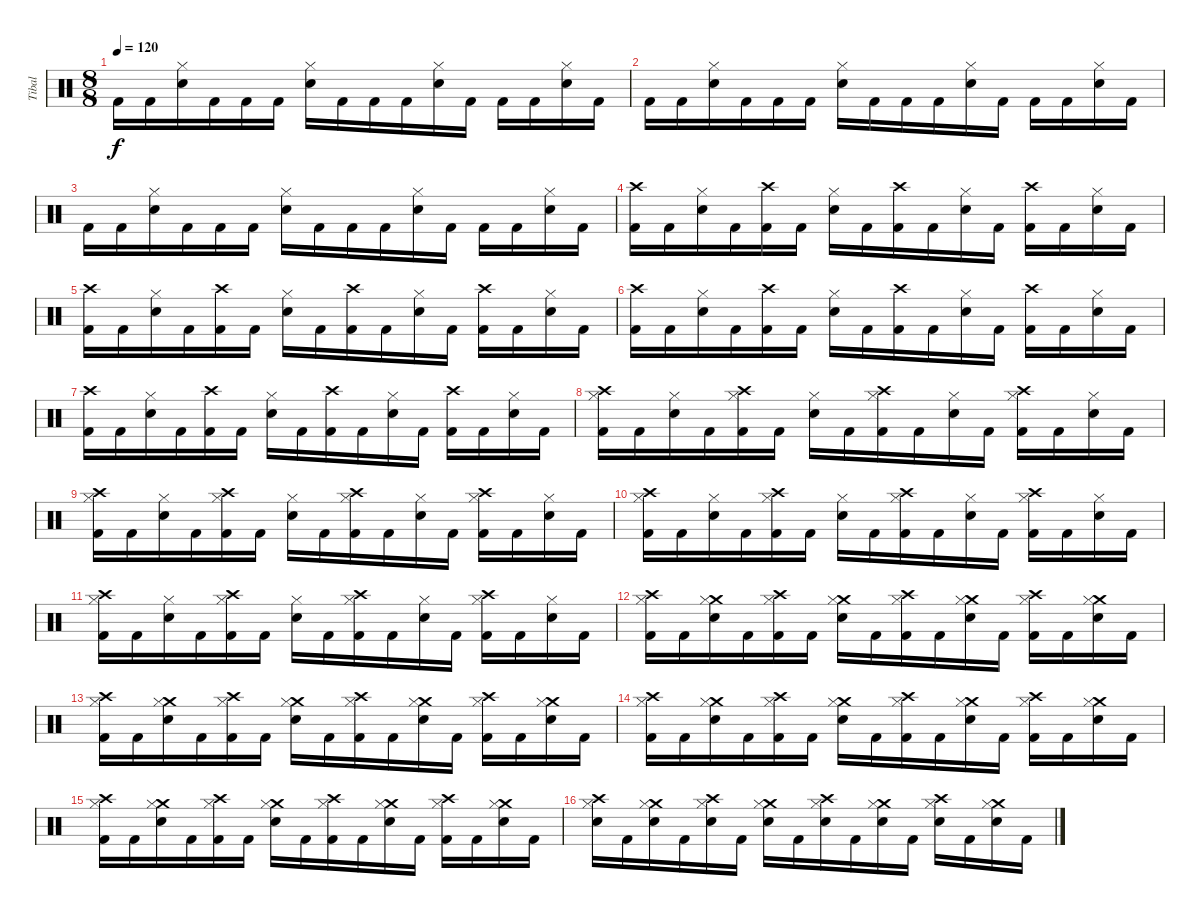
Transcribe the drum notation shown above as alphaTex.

\track ("Tibal" "Tibal") {instrument percussion}
\staff {score}
\articulation defaults
\ts (8 8)
\tempo 120
\clef neutral
\ks c "Kick (hit) 2".16{dy f} "Kick (hit) 2".16
("Snare (hit) 2" "Hi-Hat (closed)").16 "Kick (hit) 2".16 "Kick (hit) 2".16 "Kick (hit) 2".16 ("Snare (hit) 2" "Hi-Hat (closed)").16 "Kick (hit) 2".16 "Kick (hit) 2".16 "Kick (hit) 2".16 ("Snare (hit) 2" "Hi-Hat (closed)").16 "Kick (hit) 2".16 "Kick (hit) 2".16 "Kick (hit) 2".16 ("Snare (hit) 2" "Hi-Hat (closed)").16 "Kick (hit) 2".16 |
"Kick (hit) 2".16 "Kick (hit) 2".16 ("Snare (hit) 2" "Hi-Hat (closed)").16 "Kick (hit) 2".16 "Kick (hit) 2".16 "Kick (hit) 2".16 ("Snare (hit) 2" "Hi-Hat (closed)").16 "Kick (hit) 2".16 "Kick (hit) 2".16 "Kick (hit) 2".16 ("Snare (hit) 2" "Hi-Hat (closed)").16 "Kick (hit) 2".16 "Kick (hit) 2".16 "Kick (hit) 2".16 ("Snare (hit) 2" "Hi-Hat (closed)").16 "Kick (hit) 2".16 |
"Kick (hit) 2".16 "Kick (hit) 2".16 ("Snare (hit) 2" "Hi-Hat (closed)").16 "Kick (hit) 2".16 "Kick (hit) 2".16 "Kick (hit) 2".16 ("Snare (hit) 2" "Hi-Hat (closed)").16 "Kick (hit) 2".16 "Kick (hit) 2".16 "Kick (hit) 2".16 ("Snare (hit) 2" "Hi-Hat (closed)").16 "Kick (hit) 2".16 "Kick (hit) 2".16 "Kick (hit) 2".16 ("Snare (hit) 2" "Hi-Hat (closed)").16 "Kick (hit) 2".16 |
("Crash high (hit)" "Kick (hit) 2").16 "Kick (hit) 2".16 ("Snare (hit) 2" "Hi-Hat (closed)").16 "Kick (hit) 2".16 ("Crash high (hit)" "Kick (hit) 2").16 "Kick (hit) 2".16 ("Snare (hit) 2" "Hi-Hat (closed)").16 "Kick (hit) 2".16 ("Crash high (hit)" "Kick (hit) 2").16 "Kick (hit) 2".16 ("Snare (hit) 2" "Hi-Hat (closed)").16 "Kick (hit) 2".16 ("Crash high (hit)" "Kick (hit) 2").16 "Kick (hit) 2".16 ("Snare (hit) 2" "Hi-Hat (closed)").16 "Kick (hit) 2".16 |
("Crash high (hit)" "Kick (hit) 2").16 "Kick (hit) 2".16 ("Snare (hit) 2" "Hi-Hat (closed)").16 "Kick (hit) 2".16 ("Crash high (hit)" "Kick (hit) 2").16 "Kick (hit) 2".16 ("Snare (hit) 2" "Hi-Hat (closed)").16 "Kick (hit) 2".16 ("Crash high (hit)" "Kick (hit) 2").16 "Kick (hit) 2".16 ("Snare (hit) 2" "Hi-Hat (closed)").16 "Kick (hit) 2".16 ("Crash high (hit)" "Kick (hit) 2").16 "Kick (hit) 2".16 ("Snare (hit) 2" "Hi-Hat (closed)").16 "Kick (hit) 2".16 |
("Crash high (hit)" "Kick (hit) 2").16 "Kick (hit) 2".16 ("Snare (hit) 2" "Hi-Hat (closed)").16 "Kick (hit) 2".16 ("Crash high (hit)" "Kick (hit) 2").16 "Kick (hit) 2".16 ("Snare (hit) 2" "Hi-Hat (closed)").16 "Kick (hit) 2".16 ("Crash high (hit)" "Kick (hit) 2").16 "Kick (hit) 2".16 ("Snare (hit) 2" "Hi-Hat (closed)").16 "Kick (hit) 2".16 ("Crash high (hit)" "Kick (hit) 2").16 "Kick (hit) 2".16 ("Snare (hit) 2" "Hi-Hat (closed)").16 "Kick (hit) 2".16 |
("Crash high (hit)" "Kick (hit) 2").16 "Kick (hit) 2".16 ("Snare (hit) 2" "Hi-Hat (closed)").16 "Kick (hit) 2".16 ("Crash high (hit)" "Kick (hit) 2").16 "Kick (hit) 2".16 ("Snare (hit) 2" "Hi-Hat (closed)").16 "Kick (hit) 2".16 ("Crash high (hit)" "Kick (hit) 2").16 "Kick (hit) 2".16 ("Snare (hit) 2" "Hi-Hat (closed)").16 "Kick (hit) 2".16 ("Crash high (hit)" "Kick (hit) 2").16 "Kick (hit) 2".16 ("Snare (hit) 2" "Hi-Hat (closed)").16 "Kick (hit) 2".16 |
("Crash high (hit)" "Kick (hit) 2" "Hi-Hat (closed)").16 "Kick (hit) 2".16 ("Snare (hit) 2" "Hi-Hat (closed)").16 "Kick (hit) 2".16 ("Crash high (hit)" "Kick (hit) 2" "Hi-Hat (closed)").16 "Kick (hit) 2".16 ("Snare (hit) 2" "Hi-Hat (closed)").16 "Kick (hit) 2".16 ("Crash high (hit)" "Kick (hit) 2" "Hi-Hat (closed)").16 "Kick (hit) 2".16 ("Snare (hit) 2" "Hi-Hat (closed)").16 "Kick (hit) 2".16 ("Crash high (hit)" "Kick (hit) 2" "Hi-Hat (closed)").16 "Kick (hit) 2".16 ("Snare (hit) 2" "Hi-Hat (closed)").16 "Kick (hit) 2".16 |
("Crash high (hit)" "Kick (hit) 2" "Hi-Hat (closed)").16 "Kick (hit) 2".16 ("Snare (hit) 2" "Hi-Hat (closed)").16 "Kick (hit) 2".16 ("Crash high (hit)" "Kick (hit) 2" "Hi-Hat (closed)").16 "Kick (hit) 2".16 ("Snare (hit) 2" "Hi-Hat (closed)").16 "Kick (hit) 2".16 ("Crash high (hit)" "Kick (hit) 2" "Hi-Hat (closed)").16 "Kick (hit) 2".16 ("Snare (hit) 2" "Hi-Hat (closed)").16 "Kick (hit) 2".16 ("Crash high (hit)" "Kick (hit) 2" "Hi-Hat (closed)").16 "Kick (hit) 2".16 ("Snare (hit) 2" "Hi-Hat (closed)").16 "Kick (hit) 2".16 |
("Crash high (hit)" "Kick (hit) 2" "Hi-Hat (closed)").16 "Kick (hit) 2".16 ("Snare (hit) 2" "Hi-Hat (closed)").16 "Kick (hit) 2".16 ("Crash high (hit)" "Kick (hit) 2" "Hi-Hat (closed)").16 "Kick (hit) 2".16 ("Snare (hit) 2" "Hi-Hat (closed)").16 "Kick (hit) 2".16 ("Crash high (hit)" "Kick (hit) 2" "Hi-Hat (closed)").16 "Kick (hit) 2".16 ("Snare (hit) 2" "Hi-Hat (closed)").16 "Kick (hit) 2".16 ("Crash high (hit)" "Kick (hit) 2" "Hi-Hat (closed)").16 "Kick (hit) 2".16 ("Snare (hit) 2" "Hi-Hat (closed)").16 "Kick (hit) 2".16 |
("Crash high (hit)" "Kick (hit) 2" "Hi-Hat (closed)").16 "Kick (hit) 2".16 ("Snare (hit) 2" "Hi-Hat (closed)").16 "Kick (hit) 2".16 ("Crash high (hit)" "Kick (hit) 2" "Hi-Hat (closed)").16 "Kick (hit) 2".16 ("Snare (hit) 2" "Hi-Hat (closed)").16 "Kick (hit) 2".16 ("Crash high (hit)" "Kick (hit) 2" "Hi-Hat (closed)").16 "Kick (hit) 2".16 ("Snare (hit) 2" "Hi-Hat (closed)").16 "Kick (hit) 2".16 ("Crash high (hit)" "Kick (hit) 2" "Hi-Hat (closed)").16 "Kick (hit) 2".16 ("Snare (hit) 2" "Hi-Hat (closed)").16 "Kick (hit) 2".16 |
("Crash high (hit)" "Kick (hit) 2" "Hi-Hat (closed)").16 "Kick (hit) 2".16 ("Crash medium (hit)" "Snare (hit) 2" "Hi-Hat (closed)").16 "Kick (hit) 2".16 ("Crash high (hit)" "Kick (hit) 2" "Hi-Hat (closed)").16 "Kick (hit) 2".16 ("Crash medium (hit)" "Snare (hit) 2" "Hi-Hat (closed)").16 "Kick (hit) 2".16 ("Crash high (hit)" "Kick (hit) 2" "Hi-Hat (closed)").16 "Kick (hit) 2".16 ("Crash medium (hit)" "Snare (hit) 2" "Hi-Hat (closed)").16 "Kick (hit) 2".16 ("Crash high (hit)" "Kick (hit) 2" "Hi-Hat (closed)").16 "Kick (hit) 2".16 ("Crash medium (hit)" "Snare (hit) 2" "Hi-Hat (closed)").16 "Kick (hit) 2".16 |
("Crash high (hit)" "Kick (hit) 2" "Hi-Hat (closed)").16 "Kick (hit) 2".16 ("Crash medium (hit)" "Snare (hit) 2" "Hi-Hat (closed)").16 "Kick (hit) 2".16 ("Crash high (hit)" "Kick (hit) 2" "Hi-Hat (closed)").16 "Kick (hit) 2".16 ("Crash medium (hit)" "Snare (hit) 2" "Hi-Hat (closed)").16 "Kick (hit) 2".16 ("Crash high (hit)" "Kick (hit) 2" "Hi-Hat (closed)").16 "Kick (hit) 2".16 ("Crash medium (hit)" "Snare (hit) 2" "Hi-Hat (closed)").16 "Kick (hit) 2".16 ("Crash high (hit)" "Kick (hit) 2" "Hi-Hat (closed)").16 "Kick (hit) 2".16 ("Crash medium (hit)" "Snare (hit) 2" "Hi-Hat (closed)").16 "Kick (hit) 2".16 |
("Crash high (hit)" "Kick (hit) 2" "Hi-Hat (closed)").16 "Kick (hit) 2".16 ("Crash medium (hit)" "Snare (hit) 2" "Hi-Hat (closed)").16 "Kick (hit) 2".16 ("Crash high (hit)" "Kick (hit) 2" "Hi-Hat (closed)").16 "Kick (hit) 2".16 ("Crash medium (hit)" "Snare (hit) 2" "Hi-Hat (closed)").16 "Kick (hit) 2".16 ("Crash high (hit)" "Kick (hit) 2" "Hi-Hat (closed)").16 "Kick (hit) 2".16 ("Crash medium (hit)" "Snare (hit) 2" "Hi-Hat (closed)").16 "Kick (hit) 2".16 ("Crash high (hit)" "Kick (hit) 2" "Hi-Hat (closed)").16 "Kick (hit) 2".16 ("Crash medium (hit)" "Snare (hit) 2" "Hi-Hat (closed)").16 "Kick (hit) 2".16 |
("Crash high (hit)" "Kick (hit) 2" "Hi-Hat (closed)").16 "Kick (hit) 2".16 ("Crash medium (hit)" "Snare (hit) 2" "Hi-Hat (closed)").16 "Kick (hit) 2".16 ("Crash high (hit)" "Kick (hit) 2" "Hi-Hat (closed)").16 "Kick (hit) 2".16 ("Crash medium (hit)" "Snare (hit) 2" "Hi-Hat (closed)").16 "Kick (hit) 2".16 ("Crash high (hit)" "Kick (hit) 2" "Hi-Hat (closed)").16 "Kick (hit) 2".16 ("Crash medium (hit)" "Snare (hit) 2" "Hi-Hat (closed)").16 "Kick (hit) 2".16 ("Crash high (hit)" "Kick (hit) 2" "Hi-Hat (closed)").16 "Kick (hit) 2".16 ("Crash medium (hit)" "Snare (hit) 2" "Hi-Hat (closed)").16 "Kick (hit) 2".16 |
("Crash high (hit)" "Snare (hit) 2" "Hi-Hat (closed)").16 "Kick (hit) 2".16 ("Crash medium (hit)" "Snare (hit) 2" "Hi-Hat (closed)").16 "Kick (hit) 2".16 ("Crash high (hit)" "Snare (hit) 2" "Hi-Hat (closed)").16 "Kick (hit) 2".16 ("Crash medium (hit)" "Snare (hit) 2" "Hi-Hat (closed)").16 "Kick (hit) 2".16 ("Crash high (hit)" "Snare (hit) 2" "Hi-Hat (closed)").16 "Kick (hit) 2".16 ("Crash medium (hit)" "Snare (hit) 2" "Hi-Hat (closed)").16 "Kick (hit) 2".16 ("Crash high (hit)" "Snare (hit) 2" "Hi-Hat (closed)").16 "Kick (hit) 2".16 ("Crash medium (hit)" "Snare (hit) 2" "Hi-Hat (closed)").16 "Kick (hit) 2".16
